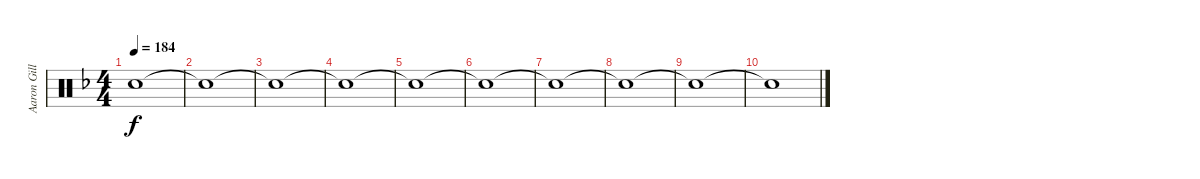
\track ("Aaron Gillespie" "Aaron Gill") {instrument percussion}
\staff {score}
\articulation defaults
\ts (4 4)
\tempo 184
\clef neutral
\ks dminor "Snare (hit)"{t}.1{dy f}
|
"Snare (hit)"{t}.1 |
"Snare (hit)"{t}.1 |
"Snare (hit)"{t}.1 |
"Snare (hit)"{t}.1 |
"Snare (hit)"{t}.1 |
"Snare (hit)"{t}.1 |
"Snare (hit)"{t}.1 |
"Snare (hit)"{t}.1 |
"Snare (hit)"{t}.1
